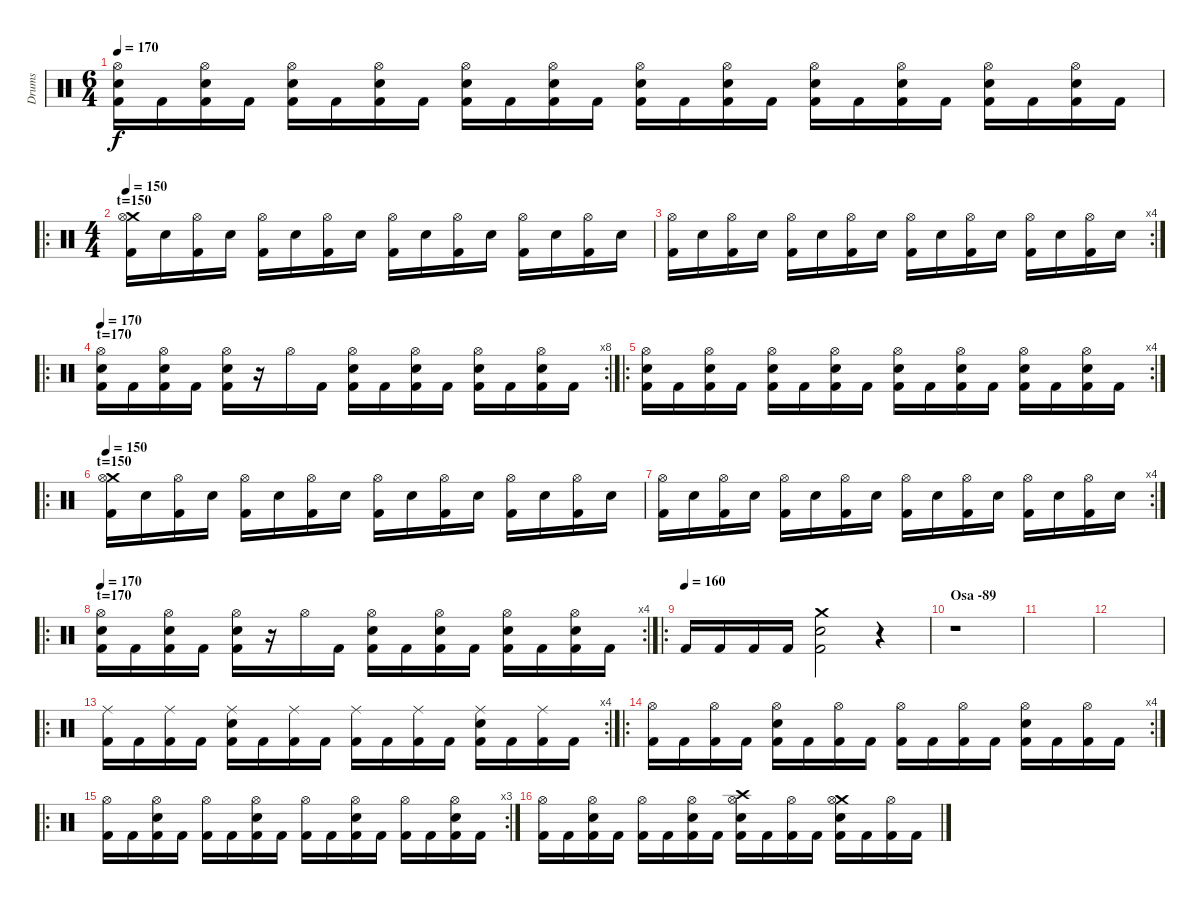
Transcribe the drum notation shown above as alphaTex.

\track ("Drums" "Drums") {instrument percussion}
\staff {score}
\articulation defaults
\ts (6 4)
\tempo 170
\clef neutral
\ks c
("Hi-Hat (open)" "Electric Snare (hit)" "Kick (hit) 2").16{dy f} "Kick (hit) 2".16 ("Hi-Hat (open)" "Electric Snare (hit)" "Kick (hit) 2").16 "Kick (hit) 2".16 ("Hi-Hat (open)" "Electric Snare (hit)" "Kick (hit) 2").16 "Kick (hit) 2".16 ("Hi-Hat (open)" "Electric Snare (hit)" "Kick (hit) 2").16 "Kick (hit) 2".16 ("Hi-Hat (open)" "Electric Snare (hit)" "Kick (hit) 2").16 "Kick (hit) 2".16 ("Hi-Hat (open)" "Electric Snare (hit)" "Kick (hit) 2").16 "Kick (hit) 2".16 ("Hi-Hat (open)" "Electric Snare (hit)" "Kick (hit) 2").16 "Kick (hit) 2".16 ("Hi-Hat (open)" "Electric Snare (hit)" "Kick (hit) 2").16 "Kick (hit) 2".16 ("Hi-Hat (open)" "Electric Snare (hit)" "Kick (hit) 2").16 "Kick (hit) 2".16 ("Hi-Hat (open)" "Electric Snare (hit)" "Kick (hit) 2").16 "Kick (hit) 2".16 ("Hi-Hat (open)" "Electric Snare (hit)" "Kick (hit) 2").16 "Kick (hit) 2".16 ("Hi-Hat (open)" "Electric Snare (hit)" "Kick (hit) 2").16 "Kick (hit) 2".16 |
\ro
\ts (4 4)
\section ("" "t=150")
\tempo 150
("Crash medium (hit)" "Hi-Hat (open)" "Kick (hit) 2").16 "Electric Snare (hit)".16 ("Hi-Hat (open)" "Kick (hit) 2").16 "Electric Snare (hit)".16 ("Hi-Hat (open)" "Kick (hit) 2").16 "Electric Snare (hit)".16 ("Hi-Hat (open)" "Kick (hit) 2").16 "Electric Snare (hit)".16 ("Hi-Hat (open)" "Kick (hit) 2").16 "Electric Snare (hit)".16 ("Hi-Hat (open)" "Kick (hit) 2").16 "Electric Snare (hit)".16 ("Hi-Hat (open)" "Kick (hit) 2").16 "Electric Snare (hit)".16 ("Hi-Hat (open)" "Kick (hit) 2").16 "Electric Snare (hit)".16 |
\rc 4
("Hi-Hat (open)" "Kick (hit) 2").16 "Electric Snare (hit)".16 ("Hi-Hat (open)" "Kick (hit) 2").16 "Electric Snare (hit)".16 ("Hi-Hat (open)" "Kick (hit) 2").16 "Electric Snare (hit)".16 ("Hi-Hat (open)" "Kick (hit) 2").16 "Electric Snare (hit)".16 ("Hi-Hat (open)" "Kick (hit) 2").16 "Electric Snare (hit)".16 ("Hi-Hat (open)" "Kick (hit) 2").16 "Electric Snare (hit)".16 ("Hi-Hat (open)" "Kick (hit) 2").16 "Electric Snare (hit)".16 ("Hi-Hat (open)" "Kick (hit) 2").16 "Electric Snare (hit)".16 |
\ro
\rc 8
\section ("" "t=170")
\tempo 170
("Hi-Hat (open)" "Electric Snare (hit)" "Kick (hit) 2").16 "Kick (hit) 2".16 ("Hi-Hat (open)" "Electric Snare (hit)" "Kick (hit) 2").16 "Kick (hit) 2".16 ("Hi-Hat (open)" "Electric Snare (hit)" "Kick (hit) 2").16 r.16 "Hi-Hat (open)".16 "Kick (hit) 2".16 ("Hi-Hat (open)" "Electric Snare (hit)" "Kick (hit) 2").16 "Kick (hit) 2".16 ("Hi-Hat (open)" "Electric Snare (hit)" "Kick (hit) 2").16 "Kick (hit) 2".16 ("Hi-Hat (open)" "Electric Snare (hit)" "Kick (hit) 2").16 "Kick (hit) 2".16 ("Hi-Hat (open)" "Electric Snare (hit)" "Kick (hit) 2").16 "Kick (hit) 2".16 |
\ro
\rc 4
("Hi-Hat (open)" "Electric Snare (hit)" "Kick (hit) 2").16 "Kick (hit) 2".16 ("Hi-Hat (open)" "Electric Snare (hit)" "Kick (hit) 2").16 "Kick (hit) 2".16 ("Hi-Hat (open)" "Electric Snare (hit)" "Kick (hit) 2").16 "Kick (hit) 2".16 ("Hi-Hat (open)" "Electric Snare (hit)" "Kick (hit) 2").16 "Kick (hit) 2".16 ("Hi-Hat (open)" "Electric Snare (hit)" "Kick (hit) 2").16 "Kick (hit) 2".16 ("Hi-Hat (open)" "Electric Snare (hit)" "Kick (hit) 2").16 "Kick (hit) 2".16 ("Hi-Hat (open)" "Electric Snare (hit)" "Kick (hit) 2").16 "Kick (hit) 2".16 ("Hi-Hat (open)" "Electric Snare (hit)" "Kick (hit) 2").16 "Kick (hit) 2".16 |
\ro
\section ("" "t=150")
\tempo 150
("Crash medium (hit)" "Hi-Hat (open)" "Kick (hit) 2").16 "Electric Snare (hit)".16 ("Hi-Hat (open)" "Kick (hit) 2").16 "Electric Snare (hit)".16 ("Hi-Hat (open)" "Kick (hit) 2").16 "Electric Snare (hit)".16 ("Hi-Hat (open)" "Kick (hit) 2").16 "Electric Snare (hit)".16 ("Hi-Hat (open)" "Kick (hit) 2").16 "Electric Snare (hit)".16 ("Hi-Hat (open)" "Kick (hit) 2").16 "Electric Snare (hit)".16 ("Hi-Hat (open)" "Kick (hit) 2").16 "Electric Snare (hit)".16 ("Hi-Hat (open)" "Kick (hit) 2").16 "Electric Snare (hit)".16 |
\rc 4
("Hi-Hat (open)" "Kick (hit) 2").16 "Electric Snare (hit)".16 ("Hi-Hat (open)" "Kick (hit) 2").16 "Electric Snare (hit)".16 ("Hi-Hat (open)" "Kick (hit) 2").16 "Electric Snare (hit)".16 ("Hi-Hat (open)" "Kick (hit) 2").16 "Electric Snare (hit)".16 ("Hi-Hat (open)" "Kick (hit) 2").16 "Electric Snare (hit)".16 ("Hi-Hat (open)" "Kick (hit) 2").16 "Electric Snare (hit)".16 ("Hi-Hat (open)" "Kick (hit) 2").16 "Electric Snare (hit)".16 ("Hi-Hat (open)" "Kick (hit) 2").16 "Electric Snare (hit)".16 |
\ro
\rc 4
\section ("" "t=170")
\tempo 170
("Hi-Hat (open)" "Electric Snare (hit)" "Kick (hit) 2").16 "Kick (hit) 2".16 ("Hi-Hat (open)" "Electric Snare (hit)" "Kick (hit) 2").16 "Kick (hit) 2".16 ("Hi-Hat (open)" "Electric Snare (hit)" "Kick (hit) 2").16 r.16 "Hi-Hat (open)".16 "Kick (hit) 2".16 ("Hi-Hat (open)" "Electric Snare (hit)" "Kick (hit) 2").16 "Kick (hit) 2".16 ("Hi-Hat (open)" "Electric Snare (hit)" "Kick (hit) 2").16 "Kick (hit) 2".16 ("Hi-Hat (open)" "Electric Snare (hit)" "Kick (hit) 2").16 "Kick (hit) 2".16 ("Hi-Hat (open)" "Electric Snare (hit)" "Kick (hit) 2").16 "Kick (hit) 2".16 |
\ro
\tempo (160)
"Kick (hit) 2".16 "Kick (hit) 2".16 "Kick (hit) 2".16 "Kick (hit) 2".16 ("Crash medium (hit)" "Electric Snare (hit)" "Kick (hit) 2").2 r.4 |
\section ("" "Osa -89")
r.1 |
|
|
\ro
\rc 4
("Ride (middle)" "Kick (hit) 2").16 "Kick (hit) 2".16 ("Ride (middle)" "Kick (hit) 2").16 "Kick (hit) 2".16 ("Ride (middle)" "Electric Snare (hit)" "Kick (hit) 2").16 "Kick (hit) 2".16 ("Ride (middle)" "Kick (hit) 2").16 "Kick (hit) 2".16 ("Ride (middle)" "Kick (hit) 2").16 "Kick (hit) 2".16 ("Ride (middle)" "Kick (hit) 2").16 "Kick (hit) 2".16 ("Ride (middle)" "Electric Snare (hit)" "Kick (hit) 2").16 "Kick (hit) 2".16 ("Ride (middle)" "Kick (hit) 2").16 "Kick (hit) 2".16 |
\ro
\rc 4
("Hi-Hat (open)" "Kick (hit) 2").16 "Kick (hit) 2".16 ("Hi-Hat (open)" "Kick (hit) 2").16 "Kick (hit) 2".16 ("Hi-Hat (open)" "Electric Snare (hit)" "Kick (hit) 2").16 "Kick (hit) 2".16 ("Hi-Hat (open)" "Kick (hit) 2").16 "Kick (hit) 2".16 ("Hi-Hat (open)" "Kick (hit) 2").16 "Kick (hit) 2".16 ("Hi-Hat (open)" "Kick (hit) 2").16 "Kick (hit) 2".16 ("Hi-Hat (open)" "Electric Snare (hit)" "Kick (hit) 2").16 "Kick (hit) 2".16 ("Hi-Hat (open)" "Kick (hit) 2").16 "Kick (hit) 2".16 |
\ro
\rc 3
("Hi-Hat (open)" "Kick (hit) 2").16 "Kick (hit) 2".16 ("Hi-Hat (open)" "Electric Snare (hit)" "Kick (hit) 2").16 "Kick (hit) 2".16 ("Hi-Hat (open)" "Kick (hit) 2").16 "Kick (hit) 2".16 ("Hi-Hat (open)" "Electric Snare (hit)" "Kick (hit) 2").16 "Kick (hit) 2".16 ("Hi-Hat (open)" "Kick (hit) 2").16 "Kick (hit) 2".16 ("Hi-Hat (open)" "Electric Snare (hit)" "Kick (hit) 2").16 "Kick (hit) 2".16 ("Hi-Hat (open)" "Kick (hit) 2").16 "Kick (hit) 2".16 ("Hi-Hat (open)" "Electric Snare (hit)" "Kick (hit) 2").16 "Kick (hit) 2".16 |
("Hi-Hat (open)" "Kick (hit) 2").16 "Kick (hit) 2".16 ("Hi-Hat (open)" "Electric Snare (hit)" "Kick (hit) 2").16 "Kick (hit) 2".16 ("Hi-Hat (open)" "Kick (hit) 2").16 "Kick (hit) 2".16 ("Hi-Hat (open)" "Electric Snare (hit)" "Kick (hit) 2").16 "Kick (hit) 2".16 ("Crash high (hit)" "Hi-Hat (open)" "Electric Snare (hit)" "Kick (hit) 2").16 "Kick (hit) 2".16 ("Hi-Hat (open)" "Kick (hit) 2").16 "Kick (hit) 2".16 ("Crash medium (hit)" "Hi-Hat (open)" "Electric Snare (hit)" "Kick (hit) 2").16 "Kick (hit) 2".16 ("Hi-Hat (open)" "Kick (hit) 2").16 "Kick (hit) 2".16
